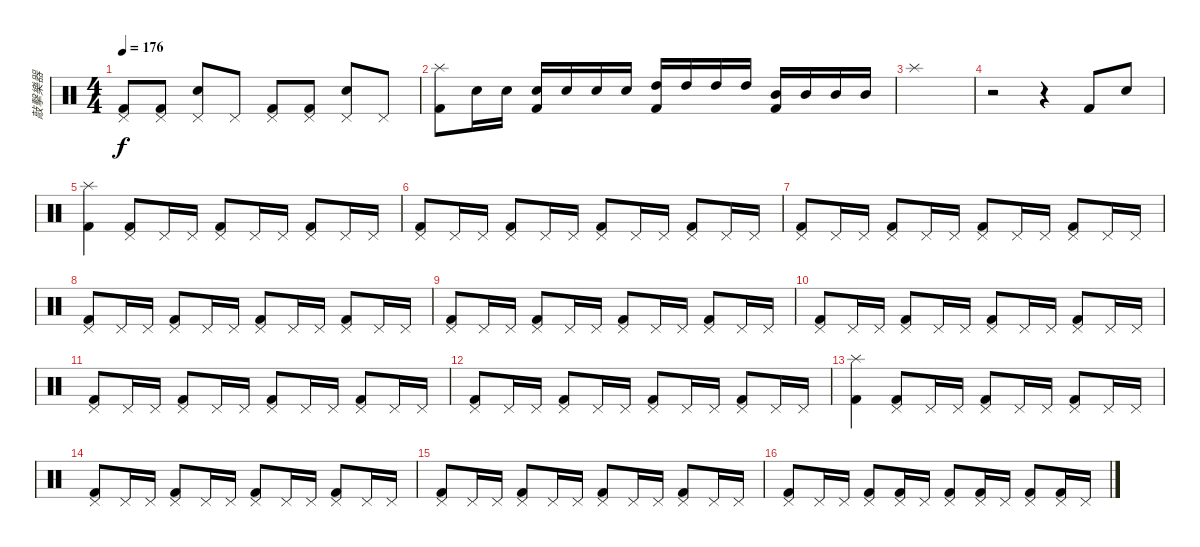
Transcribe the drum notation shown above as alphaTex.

\track ("敲擊樂器" "敲擊樂器") {instrument percussion}
\staff {score}
\articulation defaults
\ts (4 4)
\tempo 176
\clef neutral
\ks c
("Pedal Hi-Hat (hit)" "Kick (hit) 2").8{dy f} ("Pedal Hi-Hat (hit)" "Kick (hit) 2").8 ("Pedal Hi-Hat (hit)" "Snare (hit) 2").8 "Pedal Hi-Hat (hit)".8 ("Pedal Hi-Hat (hit)" "Kick (hit) 2").8 ("Pedal Hi-Hat (hit)" "Kick (hit) 2").8 ("Snare (hit) 2" "Pedal Hi-Hat (hit)").8 "Pedal Hi-Hat (hit)".8 |
("Splash (hit)" "Kick (hit) 2").8 "Snare (hit) 2".16 "Snare (hit) 2".16 ("Kick (hit) 2" "Snare (hit) 2").16 "Snare (hit) 2".16 "Snare (hit) 2".16 "Snare (hit) 2".16 ("High Tom (hit)" "Kick (hit) 2").16 "High Tom (hit)".16 "High Tom (hit)".16 "High Tom (hit)".16 ("Mid Tom (hit)" "Kick (hit) 2").16 "Mid Tom (hit)".16 "Mid Tom (hit)".16 "Mid Tom (hit)".16 |
"Splash (hit)".1 |
r.2 r.4 "Kick (hit) 2".8 "Snare (hit) 2".8 |
("Splash (hit)" "Kick (hit) 2").4 ("Pedal Hi-Hat (hit)" "Kick (hit) 2").8 "Pedal Hi-Hat (hit)".16 "Pedal Hi-Hat (hit)".16 ("Pedal Hi-Hat (hit)" "Kick (hit) 2").8 "Pedal Hi-Hat (hit)".16 "Pedal Hi-Hat (hit)".16 ("Pedal Hi-Hat (hit)" "Kick (hit) 2").8 "Pedal Hi-Hat (hit)".16 "Pedal Hi-Hat (hit)".16 |
("Pedal Hi-Hat (hit)" "Kick (hit) 2").8 "Pedal Hi-Hat (hit)".16 "Pedal Hi-Hat (hit)".16 ("Pedal Hi-Hat (hit)" "Kick (hit) 2").8 "Pedal Hi-Hat (hit)".16 "Pedal Hi-Hat (hit)".16 ("Pedal Hi-Hat (hit)" "Kick (hit) 2").8 "Pedal Hi-Hat (hit)".16 "Pedal Hi-Hat (hit)".16 ("Pedal Hi-Hat (hit)" "Kick (hit) 2").8 "Pedal Hi-Hat (hit)".16 "Pedal Hi-Hat (hit)".16 |
("Pedal Hi-Hat (hit)" "Kick (hit) 2").8 "Pedal Hi-Hat (hit)".16 "Pedal Hi-Hat (hit)".16 ("Pedal Hi-Hat (hit)" "Kick (hit) 2").8 "Pedal Hi-Hat (hit)".16 "Pedal Hi-Hat (hit)".16 ("Pedal Hi-Hat (hit)" "Kick (hit) 2").8 "Pedal Hi-Hat (hit)".16 "Pedal Hi-Hat (hit)".16 ("Pedal Hi-Hat (hit)" "Kick (hit) 2").8 "Pedal Hi-Hat (hit)".16 "Pedal Hi-Hat (hit)".16 |
("Pedal Hi-Hat (hit)" "Kick (hit) 2").8 "Pedal Hi-Hat (hit)".16 "Pedal Hi-Hat (hit)".16 ("Pedal Hi-Hat (hit)" "Kick (hit) 2").8 "Pedal Hi-Hat (hit)".16 "Pedal Hi-Hat (hit)".16 ("Pedal Hi-Hat (hit)" "Kick (hit) 2").8 "Pedal Hi-Hat (hit)".16 "Pedal Hi-Hat (hit)".16 ("Pedal Hi-Hat (hit)" "Kick (hit) 2").8 "Pedal Hi-Hat (hit)".16 "Pedal Hi-Hat (hit)".16 |
("Pedal Hi-Hat (hit)" "Kick (hit) 2").8 "Pedal Hi-Hat (hit)".16 "Pedal Hi-Hat (hit)".16 ("Pedal Hi-Hat (hit)" "Kick (hit) 2").8 "Pedal Hi-Hat (hit)".16 "Pedal Hi-Hat (hit)".16 ("Pedal Hi-Hat (hit)" "Kick (hit) 2").8 "Pedal Hi-Hat (hit)".16 "Pedal Hi-Hat (hit)".16 ("Pedal Hi-Hat (hit)" "Kick (hit) 2").8 "Pedal Hi-Hat (hit)".16 "Pedal Hi-Hat (hit)".16 |
("Pedal Hi-Hat (hit)" "Kick (hit) 2").8 "Pedal Hi-Hat (hit)".16 "Pedal Hi-Hat (hit)".16 ("Pedal Hi-Hat (hit)" "Kick (hit) 2").8 "Pedal Hi-Hat (hit)".16 "Pedal Hi-Hat (hit)".16 ("Pedal Hi-Hat (hit)" "Kick (hit) 2").8 "Pedal Hi-Hat (hit)".16 "Pedal Hi-Hat (hit)".16 ("Pedal Hi-Hat (hit)" "Kick (hit) 2").8 "Pedal Hi-Hat (hit)".16 "Pedal Hi-Hat (hit)".16 |
("Pedal Hi-Hat (hit)" "Kick (hit) 2").8 "Pedal Hi-Hat (hit)".16 "Pedal Hi-Hat (hit)".16 ("Pedal Hi-Hat (hit)" "Kick (hit) 2").8 "Pedal Hi-Hat (hit)".16 "Pedal Hi-Hat (hit)".16 ("Pedal Hi-Hat (hit)" "Kick (hit) 2").8 "Pedal Hi-Hat (hit)".16 "Pedal Hi-Hat (hit)".16 ("Pedal Hi-Hat (hit)" "Kick (hit) 2").8 "Pedal Hi-Hat (hit)".16 "Pedal Hi-Hat (hit)".16 |
("Pedal Hi-Hat (hit)" "Kick (hit) 2").8 "Pedal Hi-Hat (hit)".16 "Pedal Hi-Hat (hit)".16 ("Pedal Hi-Hat (hit)" "Kick (hit) 2").8 "Pedal Hi-Hat (hit)".16 "Pedal Hi-Hat (hit)".16 ("Pedal Hi-Hat (hit)" "Kick (hit) 2").8 "Pedal Hi-Hat (hit)".16 "Pedal Hi-Hat (hit)".16 ("Pedal Hi-Hat (hit)" "Kick (hit) 2").8 "Pedal Hi-Hat (hit)".16 "Pedal Hi-Hat (hit)".16 |
("Splash (hit)" "Kick (hit) 2").4 ("Pedal Hi-Hat (hit)" "Kick (hit) 2").8 "Pedal Hi-Hat (hit)".16 "Pedal Hi-Hat (hit)".16 ("Pedal Hi-Hat (hit)" "Kick (hit) 2").8 "Pedal Hi-Hat (hit)".16 "Pedal Hi-Hat (hit)".16 ("Pedal Hi-Hat (hit)" "Kick (hit) 2").8 "Pedal Hi-Hat (hit)".16 "Pedal Hi-Hat (hit)".16 |
("Pedal Hi-Hat (hit)" "Kick (hit) 2").8 "Pedal Hi-Hat (hit)".16 "Pedal Hi-Hat (hit)".16 ("Pedal Hi-Hat (hit)" "Kick (hit) 2").8 "Pedal Hi-Hat (hit)".16 "Pedal Hi-Hat (hit)".16 ("Pedal Hi-Hat (hit)" "Kick (hit) 2").8 "Pedal Hi-Hat (hit)".16 "Pedal Hi-Hat (hit)".16 ("Pedal Hi-Hat (hit)" "Kick (hit) 2").8 "Pedal Hi-Hat (hit)".16 "Pedal Hi-Hat (hit)".16 |
("Pedal Hi-Hat (hit)" "Kick (hit) 2").8 "Pedal Hi-Hat (hit)".16 "Pedal Hi-Hat (hit)".16 ("Pedal Hi-Hat (hit)" "Kick (hit) 2").8 "Pedal Hi-Hat (hit)".16 "Pedal Hi-Hat (hit)".16 ("Pedal Hi-Hat (hit)" "Kick (hit) 2").8 "Pedal Hi-Hat (hit)".16 "Pedal Hi-Hat (hit)".16 ("Pedal Hi-Hat (hit)" "Kick (hit) 2").8 "Pedal Hi-Hat (hit)".16 "Pedal Hi-Hat (hit)".16 |
("Pedal Hi-Hat (hit)" "Kick (hit) 2").8 "Pedal Hi-Hat (hit)".16 "Pedal Hi-Hat (hit)".16 ("Pedal Hi-Hat (hit)" "Kick (hit) 2").8 ("Kick (hit) 2" "Pedal Hi-Hat (hit)").16 "Pedal Hi-Hat (hit)".16 ("Pedal Hi-Hat (hit)" "Kick (hit) 2").8 ("Pedal Hi-Hat (hit)" "Kick (hit) 2").16 "Pedal Hi-Hat (hit)".16 ("Pedal Hi-Hat (hit)" "Kick (hit) 2").8 ("Pedal Hi-Hat (hit)" "Kick (hit) 2").16 "Pedal Hi-Hat (hit)".16
